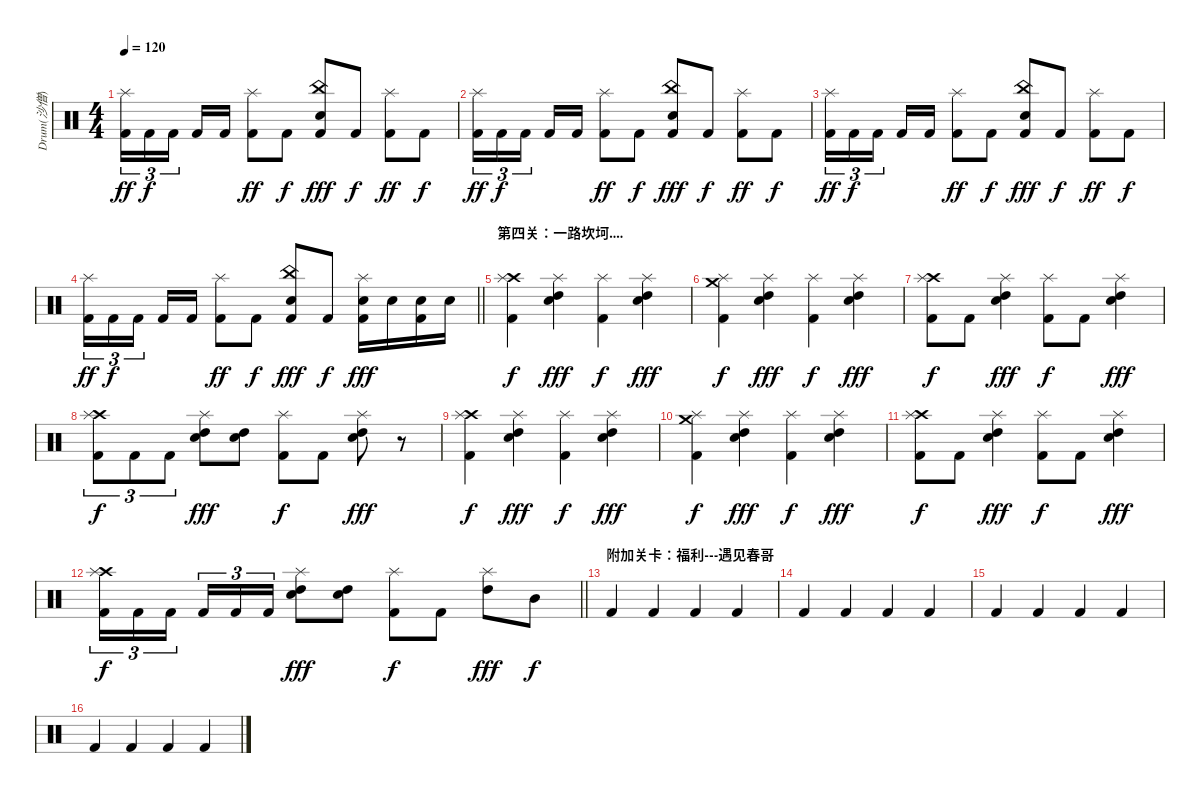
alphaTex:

\track ("Drum(沙僧)" "Drum(沙僧)") {instrument percussion}
\staff {score}
\articulation defaults
\ts (4 4)
\tempo 120
\clef neutral
\ks c
("Splash (hit)" "Kick (hit) 2").16{tu (3 2) dy ff} "Kick (hit) 2".16{tu (3 2) dy f} "Kick (hit) 2".16{tu (3 2) beam splitsecondary} "Kick (hit) 2".16 "Kick (hit) 2".16 ("Splash (hit)" "Kick (hit) 2").8{dy ff} "Kick (hit) 2".8{dy f} ("China (hit)" "Snare (hit) 2" "Kick (hit) 2").8{dy fff} "Kick (hit) 2".8{dy f} ("Splash (hit)" "Kick (hit) 2").8{dy ff} "Kick (hit) 2".8{dy f} |
("Splash (hit)" "Kick (hit) 2").16{tu (3 2) dy ff} "Kick (hit) 2".16{tu (3 2) dy f} "Kick (hit) 2".16{tu (3 2) beam splitsecondary} "Kick (hit) 2".16 "Kick (hit) 2".16 ("Splash (hit)" "Kick (hit) 2").8{dy ff} "Kick (hit) 2".8{dy f} ("China (hit)" "Snare (hit) 2" "Kick (hit) 2").8{dy fff} "Kick (hit) 2".8{dy f} ("Splash (hit)" "Kick (hit) 2").8{dy ff} "Kick (hit) 2".8{dy f} |
("Splash (hit)" "Kick (hit) 2").16{tu (3 2) dy ff} "Kick (hit) 2".16{tu (3 2) dy f} "Kick (hit) 2".16{tu (3 2) beam splitsecondary} "Kick (hit) 2".16 "Kick (hit) 2".16 ("Splash (hit)" "Kick (hit) 2").8{dy ff} "Kick (hit) 2".8{dy f} ("China (hit)" "Snare (hit) 2" "Kick (hit) 2").8{dy fff} "Kick (hit) 2".8{dy f} ("Splash (hit)" "Kick (hit) 2").8{dy ff} "Kick (hit) 2".8{dy f} |
\barLineRight lightlight
("Splash (hit)" "Kick (hit) 2").16{tu (3 2) dy ff} "Kick (hit) 2".16{tu (3 2) dy f} "Kick (hit) 2".16{tu (3 2) beam splitsecondary} "Kick (hit) 2".16 "Kick (hit) 2".16 ("Splash (hit)" "Kick (hit) 2").8{dy ff} "Kick (hit) 2".8{dy f} ("China (hit)" "Snare (hit) 2" "Kick (hit) 2").8{dy fff} "Kick (hit) 2".8{dy f} ("Splash (hit)" "Snare (hit) 2" "Kick (hit) 2").16{dy fff} "Snare (hit) 2".16 ("Snare (hit) 2" "Kick (hit) 2").16 "Snare (hit) 2".16 |
\section ("" "第四关：一路坎坷....")
("Crash high (hit)" "Splash (hit)" "Kick (hit) 2").4{dy f} ("Splash (hit)" "Snare (hit) 2" "High Tom (hit)").4{dy fff} ("Splash (hit)" "Kick (hit) 2").4{dy f} ("Splash (hit)" "Snare (hit) 2" "High Tom (hit)").4{dy fff} |
("Crash medium (hit)" "Splash (hit)" "Kick (hit) 2").4{dy f} ("Splash (hit)" "Snare (hit) 2" "High Tom (hit)").4{dy fff} ("Splash (hit)" "Kick (hit) 2").4{dy f} ("Splash (hit)" "Snare (hit) 2" "High Tom (hit)").4{dy fff} |
("Crash high (hit)" "Splash (hit)" "Kick (hit) 2").8{dy f} "Kick (hit) 2".8 ("Splash (hit)" "Snare (hit) 2" "High Tom (hit)").4{dy fff} ("Splash (hit)" "Kick (hit) 2").8{dy f} "Kick (hit) 2".8 ("Splash (hit)" "Snare (hit) 2" "High Tom (hit)").4{dy fff} |
("Crash high (hit)" "Splash (hit)" "Kick (hit) 2").8{tu (3 2) dy f} "Kick (hit) 2".8{tu (3 2)} "Kick (hit) 2".8{tu (3 2)} ("Splash (hit)" "Snare (hit) 2" "High Tom (hit)").8{dy fff} ("Snare (hit) 2" "High Tom (hit)").8 ("Splash (hit)" "Kick (hit) 2").8{dy f} "Kick (hit) 2".8 ("Splash (hit)" "Snare (hit) 2" "High Tom (hit)").8{dy fff} r.8 |
("Crash high (hit)" "Splash (hit)" "Kick (hit) 2").4{dy f} ("Splash (hit)" "Snare (hit) 2" "High Tom (hit)").4{dy fff} ("Splash (hit)" "Kick (hit) 2").4{dy f} ("Splash (hit)" "Snare (hit) 2" "High Tom (hit)").4{dy fff} |
("Crash medium (hit)" "Splash (hit)" "Kick (hit) 2").4{dy f} ("Splash (hit)" "Snare (hit) 2" "High Tom (hit)").4{dy fff} ("Splash (hit)" "Kick (hit) 2").4{dy f} ("Splash (hit)" "Snare (hit) 2" "High Tom (hit)").4{dy fff} |
("Crash high (hit)" "Splash (hit)" "Kick (hit) 2").8{dy f} "Kick (hit) 2".8 ("Splash (hit)" "Snare (hit) 2" "High Tom (hit)").4{dy fff} ("Splash (hit)" "Kick (hit) 2").8{dy f} "Kick (hit) 2".8 ("Splash (hit)" "Snare (hit) 2" "High Tom (hit)").4{dy fff} |
\barLineRight lightlight
("Crash high (hit)" "Splash (hit)" "Kick (hit) 2").16{tu (3 2) dy f} "Kick (hit) 2".16{tu (3 2)} "Kick (hit) 2".16{tu (3 2) beam splitsecondary} "Kick (hit) 2".16{tu (3 2)} "Kick (hit) 2".16{tu (3 2)} "Kick (hit) 2".16{tu (3 2)} ("Splash (hit)" "Snare (hit) 2" "High Tom (hit)").8{dy fff} ("Snare (hit) 2" "High Tom (hit)").8 ("Splash (hit)" "Kick (hit) 2").8{dy f} "Kick (hit) 2".8 ("Splash (hit)" "High Tom (hit)").8{dy fff} "Mid Tom (hit)".8{dy f} |
\section ("" "附加关卡：福利---遇见春哥")
"Kick (hit) 2".4 "Kick (hit) 2".4 "Kick (hit) 2".4 "Kick (hit) 2".4 |
"Kick (hit) 2".4 "Kick (hit) 2".4 "Kick (hit) 2".4 "Kick (hit) 2".4 |
"Kick (hit) 2".4 "Kick (hit) 2".4 "Kick (hit) 2".4 "Kick (hit) 2".4 |
"Kick (hit) 2".4 "Kick (hit) 2".4 "Kick (hit) 2".4 "Kick (hit) 2".4
